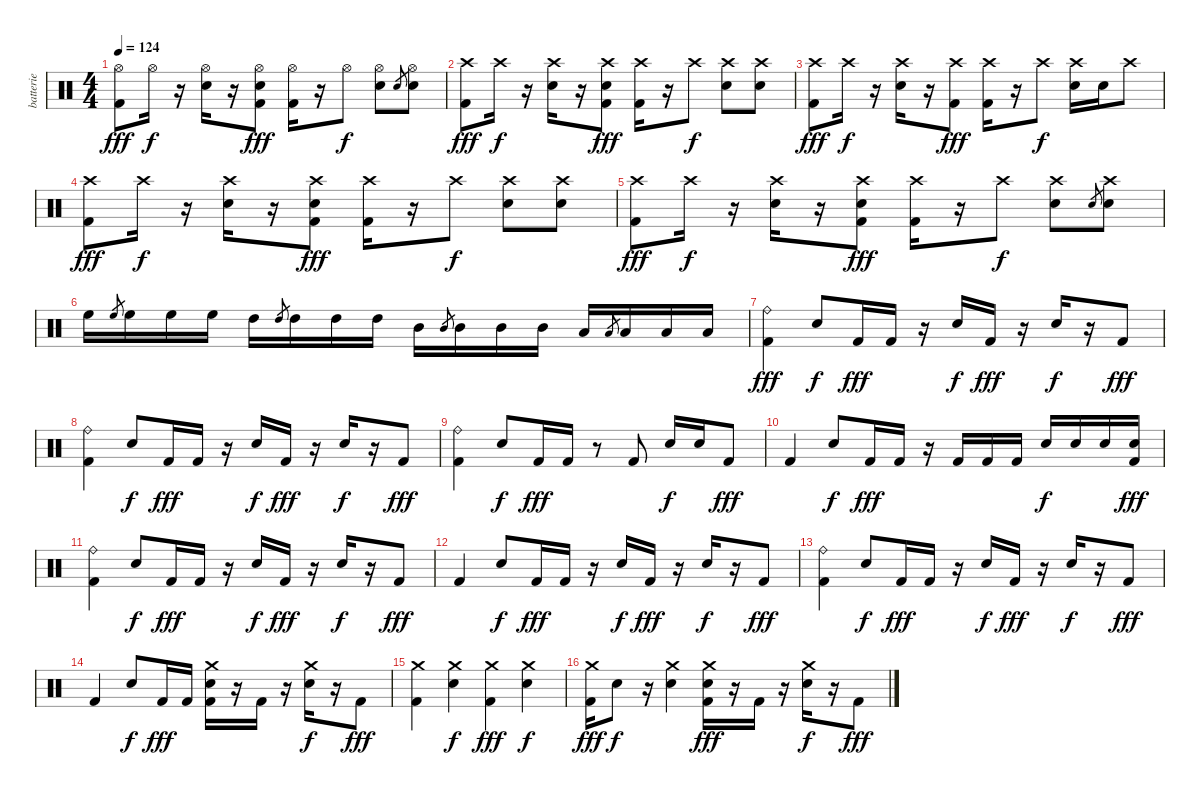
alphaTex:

\track ("batterie" "batterie") {instrument percussion}
\staff {score}
\articulation defaults
\ts (4 4)
\tempo 124
\clef neutral
\ks c
("Hi-Hat (open)" "Kick (hit) 2").8{dy fff} "Hi-Hat (open)".16{dy f} r.16 ("Hi-Hat (open)" "Electric Snare (hit)").16 r.16 ("Hi-Hat (open)" "Electric Snare (hit)" "Kick (hit) 2").8{dy fff} ("Hi-Hat (open)" "Kick (hit) 2").16 r.16 "Hi-Hat (open)".8{dy f} ("Hi-Hat (open)" "Electric Snare (hit)").8 "Electric Snare (hit)".8{gr} ("Hi-Hat (open)" "Electric Snare (hit)").8 |
("Crash high (hit)" "Kick (hit) 2").8{dy fff} "Crash high (hit)".16{dy f} r.16 ("Crash high (hit)" "Electric Snare (hit)").16 r.16 ("Crash high (hit)" "Electric Snare (hit)" "Kick (hit) 2").8{dy fff} ("Crash high (hit)" "Kick (hit) 2").16 r.16 "Crash high (hit)".8{dy f} ("Crash high (hit)" "Electric Snare (hit)").8 ("Crash high (hit)" "Electric Snare (hit)").8 |
("Crash high (hit)" "Kick (hit) 2").8{dy fff} "Crash high (hit)".16{dy f} r.16 ("Crash high (hit)" "Electric Snare (hit)").16 r.16 ("Crash high (hit)" "Kick (hit) 2").8{dy fff} ("Crash high (hit)" "Kick (hit) 2").16 r.16 "Crash high (hit)".8{dy f} ("Crash high (hit)" "Electric Snare (hit)").16 "Electric Snare (hit)".16 "Crash high (hit)".8 |
("Crash high (hit)" "Kick (hit) 2").8{dy fff} "Crash high (hit)".16{dy f} r.16 ("Crash high (hit)" "Electric Snare (hit)").16 r.16 ("Crash high (hit)" "Electric Snare (hit)" "Kick (hit) 2").8{dy fff} ("Crash high (hit)" "Kick (hit) 2").16 r.16 "Crash high (hit)".8{dy f} ("Crash high (hit)" "Electric Snare (hit)").8 ("Crash high (hit)" "Electric Snare (hit)").8 |
("Crash high (hit)" "Kick (hit) 2").8{dy fff} "Crash high (hit)".16{dy f} r.16 ("Crash high (hit)" "Electric Snare (hit)").16 r.16 ("Crash high (hit)" "Electric Snare (hit)" "Kick (hit) 2").8{dy fff} ("Crash high (hit)" "Kick (hit) 2").16 r.16 "Crash high (hit)".8{dy f} ("Crash high (hit)" "Electric Snare (hit)").8 "Electric Snare (hit)".8{gr} ("Crash high (hit)" "Electric Snare (hit)").8 |
"High Floor Tom (hit)".16 "High Floor Tom (hit)".8{gr} "High Floor Tom (hit)".16 "High Floor Tom (hit)".16 "High Floor Tom (hit)".16 "High Tom (hit)".16 "High Tom (hit)".8{gr} "High Tom (hit)".16 "High Tom (hit)".16 "High Tom (hit)".16 "Mid Tom (hit)".16 "Mid Tom (hit)".8{gr} "Mid Tom (hit)".16 "Mid Tom (hit)".16 "Mid Tom (hit)".16 "Low Tom (hit)".16 "Low Tom (hit)".8{gr} "Low Tom (hit)".16 "Low Tom (hit)".16 "Low Tom (hit)".16 |
("Ride (bell)" "Kick (hit) 2").4{dy fff} "Electric Snare (hit)".8{dy f} "Kick (hit) 2".16{dy fff} "Kick (hit) 2".16 r.16 "Electric Snare (hit)".16{dy f} "Kick (hit) 2".16{dy fff} r.16 "Electric Snare (hit)".16{dy f} r.16 "Kick (hit) 2".8{dy fff} |
("Ride (bell)" "Kick (hit) 2").4 "Electric Snare (hit)".8{dy f} "Kick (hit) 2".16{dy fff} "Kick (hit) 2".16 r.16 "Electric Snare (hit)".16{dy f} "Kick (hit) 2".16{dy fff} r.16 "Electric Snare (hit)".16{dy f} r.16 "Kick (hit) 2".8{dy fff} |
("Ride (bell)" "Kick (hit) 2").4 "Electric Snare (hit)".8{dy f} "Kick (hit) 2".16{dy fff} "Kick (hit) 2".16 r.8 "Kick (hit) 2".8 "Electric Snare (hit)".16{dy f} "Electric Snare (hit)".16 "Kick (hit) 2".8{dy fff} |
"Kick (hit) 2".4 "Electric Snare (hit)".8{dy f} "Kick (hit) 2".16{dy fff} "Kick (hit) 2".16 r.16 "Kick (hit) 2".16 "Kick (hit) 2".16 "Kick (hit) 2".16 "Electric Snare (hit)".16{dy f} "Electric Snare (hit)".16 "Electric Snare (hit)".16 ("Electric Snare (hit)" "Kick (hit) 2").16{dy fff} |
("Ride (bell)" "Kick (hit) 2").4 "Electric Snare (hit)".8{dy f} "Kick (hit) 2".16{dy fff} "Kick (hit) 2".16 r.16 "Electric Snare (hit)".16{dy f} "Kick (hit) 2".16{dy fff} r.16 "Electric Snare (hit)".16{dy f} r.16 "Kick (hit) 2".8{dy fff} |
"Kick (hit) 2".4 "Electric Snare (hit)".8{dy f} "Kick (hit) 2".16{dy fff} "Kick (hit) 2".16 r.16 "Electric Snare (hit)".16{dy f} "Kick (hit) 2".16{dy fff} r.16 "Electric Snare (hit)".16{dy f} r.16 "Kick (hit) 2".8{dy fff} |
("Ride (bell)" "Kick (hit) 2").4 "Electric Snare (hit)".8{dy f} "Kick (hit) 2".16{dy fff} "Kick (hit) 2".16 r.16 "Electric Snare (hit)".16{dy f} "Kick (hit) 2".16{dy fff} r.16 "Electric Snare (hit)".16{dy f} r.16 "Kick (hit) 2".8{dy fff} |
"Kick (hit) 2".4 "Electric Snare (hit)".8{dy f} "Kick (hit) 2".16{dy fff} "Kick (hit) 2".16 ("Crash medium (hit)" "Electric Snare (hit)" "Kick (hit) 2").16 r.16 "Kick (hit) 2".16 r.16 ("Crash medium (hit)" "Electric Snare (hit)").16{dy f} r.16 "Kick (hit) 2".8{dy fff} |
("Crash medium (hit)" "Kick (hit) 2").4 ("Crash medium (hit)" "Electric Snare (hit)").4{dy f} ("Crash medium (hit)" "Kick (hit) 2").4{dy fff} ("Crash medium (hit)" "Electric Snare (hit)").4{dy f} |
("Crash medium (hit)" "Kick (hit) 2").16{dy fff} "Electric Snare (hit)".8{dy f} r.16 ("Crash medium (hit)" "Electric Snare (hit)").4 ("Crash medium (hit)" "Electric Snare (hit)" "Kick (hit) 2").16{dy fff} r.16 "Kick (hit) 2".16 r.16 ("Crash medium (hit)" "Electric Snare (hit)").16{dy f} r.16 "Kick (hit) 2".8{dy fff}
